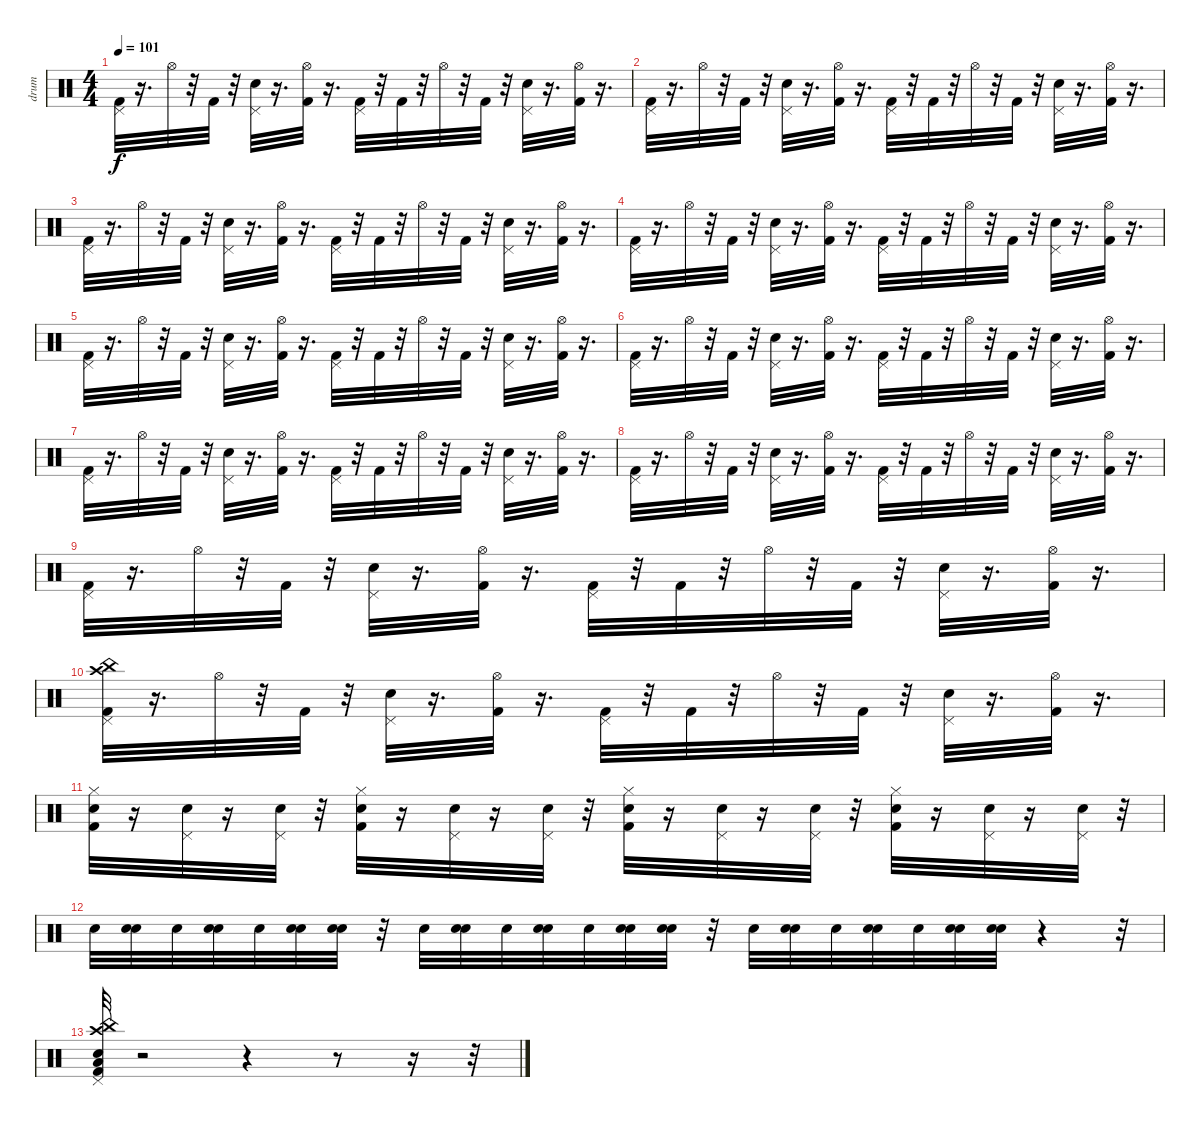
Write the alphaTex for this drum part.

\track ("drum" "drum") {instrument percussion}
\staff {score}
\articulation defaults
\ts (4 4)
\tempo 101
\clef neutral
\ks c
("Kick (hit) 2" "Pedal Hi-Hat (hit)").32{dy f} r.16{d} "Hi-Hat (open)".32 r.32 "Kick (hit) 2".32 r.32 ("Electric Snare (hit)" "Pedal Hi-Hat (hit)").32 r.16{d} ("Kick (hit) 2" "Hi-Hat (open)").32 r.16{d} ("Kick (hit) 2" "Pedal Hi-Hat (hit)").32 r.32 "Kick (hit) 2".32 r.32 "Hi-Hat (open)".32 r.32 "Kick (hit) 2".32 r.32 ("Electric Snare (hit)" "Pedal Hi-Hat (hit)").32 r.16{d} ("Kick (hit) 2" "Hi-Hat (open)").32 r.16{d} |
("Kick (hit) 2" "Pedal Hi-Hat (hit)").32 r.16{d} "Hi-Hat (open)".32 r.32 "Kick (hit) 2".32 r.32 ("Electric Snare (hit)" "Pedal Hi-Hat (hit)").32 r.16{d} ("Kick (hit) 2" "Hi-Hat (open)").32 r.16{d} ("Kick (hit) 2" "Pedal Hi-Hat (hit)").32 r.32 "Kick (hit) 2".32 r.32 "Hi-Hat (open)".32 r.32 "Kick (hit) 2".32 r.32 ("Electric Snare (hit)" "Pedal Hi-Hat (hit)").32 r.16{d} ("Kick (hit) 2" "Hi-Hat (open)").32 r.16{d} |
("Kick (hit) 2" "Pedal Hi-Hat (hit)").32 r.16{d} "Hi-Hat (open)".32 r.32 "Kick (hit) 2".32 r.32 ("Electric Snare (hit)" "Pedal Hi-Hat (hit)").32 r.16{d} ("Kick (hit) 2" "Hi-Hat (open)").32 r.16{d} ("Kick (hit) 2" "Pedal Hi-Hat (hit)").32 r.32 "Kick (hit) 2".32 r.32 "Hi-Hat (open)".32 r.32 "Kick (hit) 2".32 r.32 ("Electric Snare (hit)" "Pedal Hi-Hat (hit)").32 r.16{d} ("Kick (hit) 2" "Hi-Hat (open)").32 r.16{d} |
("Kick (hit) 2" "Pedal Hi-Hat (hit)").32 r.16{d} "Hi-Hat (open)".32 r.32 "Kick (hit) 2".32 r.32 ("Electric Snare (hit)" "Pedal Hi-Hat (hit)").32 r.16{d} ("Kick (hit) 2" "Hi-Hat (open)").32 r.16{d} ("Kick (hit) 2" "Pedal Hi-Hat (hit)").32 r.32 "Kick (hit) 2".32 r.32 "Hi-Hat (open)".32 r.32 "Kick (hit) 2".32 r.32 ("Electric Snare (hit)" "Pedal Hi-Hat (hit)").32 r.16{d} ("Kick (hit) 2" "Hi-Hat (open)").32 r.16{d} |
("Kick (hit) 2" "Pedal Hi-Hat (hit)").32 r.16{d} "Hi-Hat (open)".32 r.32 "Kick (hit) 2".32 r.32 ("Electric Snare (hit)" "Pedal Hi-Hat (hit)").32 r.16{d} ("Kick (hit) 2" "Hi-Hat (open)").32 r.16{d} ("Kick (hit) 2" "Pedal Hi-Hat (hit)").32 r.32 "Kick (hit) 2".32 r.32 "Hi-Hat (open)".32 r.32 "Kick (hit) 2".32 r.32 ("Electric Snare (hit)" "Pedal Hi-Hat (hit)").32 r.16{d} ("Kick (hit) 2" "Hi-Hat (open)").32 r.16{d} |
("Kick (hit) 2" "Pedal Hi-Hat (hit)").32 r.16{d} "Hi-Hat (open)".32 r.32 "Kick (hit) 2".32 r.32 ("Electric Snare (hit)" "Pedal Hi-Hat (hit)").32 r.16{d} ("Kick (hit) 2" "Hi-Hat (open)").32 r.16{d} ("Kick (hit) 2" "Pedal Hi-Hat (hit)").32 r.32 "Kick (hit) 2".32 r.32 "Hi-Hat (open)".32 r.32 "Kick (hit) 2".32 r.32 ("Electric Snare (hit)" "Pedal Hi-Hat (hit)").32 r.16{d} ("Kick (hit) 2" "Hi-Hat (open)").32 r.16{d} |
("Kick (hit) 2" "Pedal Hi-Hat (hit)").32 r.16{d} "Hi-Hat (open)".32 r.32 "Kick (hit) 2".32 r.32 ("Electric Snare (hit)" "Pedal Hi-Hat (hit)").32 r.16{d} ("Kick (hit) 2" "Hi-Hat (open)").32 r.16{d} ("Kick (hit) 2" "Pedal Hi-Hat (hit)").32 r.32 "Kick (hit) 2".32 r.32 "Hi-Hat (open)".32 r.32 "Kick (hit) 2".32 r.32 ("Electric Snare (hit)" "Pedal Hi-Hat (hit)").32 r.16{d} ("Kick (hit) 2" "Hi-Hat (open)").32 r.16{d} |
("Kick (hit) 2" "Pedal Hi-Hat (hit)").32 r.16{d} "Hi-Hat (open)".32 r.32 "Kick (hit) 2".32 r.32 ("Electric Snare (hit)" "Pedal Hi-Hat (hit)").32 r.16{d} ("Kick (hit) 2" "Hi-Hat (open)").32 r.16{d} ("Kick (hit) 2" "Pedal Hi-Hat (hit)").32 r.32 "Kick (hit) 2".32 r.32 "Hi-Hat (open)".32 r.32 "Kick (hit) 2".32 r.32 ("Electric Snare (hit)" "Pedal Hi-Hat (hit)").32 r.16{d} ("Kick (hit) 2" "Hi-Hat (open)").32 r.16{d} |
("Kick (hit) 2" "Pedal Hi-Hat (hit)").32 r.16{d} "Hi-Hat (open)".32 r.32 "Kick (hit) 2".32 r.32 ("Electric Snare (hit)" "Pedal Hi-Hat (hit)").32 r.16{d} ("Kick (hit) 2" "Hi-Hat (open)").32 r.16{d} ("Kick (hit) 2" "Pedal Hi-Hat (hit)").32 r.32 "Kick (hit) 2".32 r.32 "Hi-Hat (open)".32 r.32 "Kick (hit) 2".32 r.32 ("Electric Snare (hit)" "Pedal Hi-Hat (hit)").32 r.16{d} ("Kick (hit) 2" "Hi-Hat (open)").32 r.16{d} |
("Kick (hit) 2" "Pedal Hi-Hat (hit)" "Crash high (hit)" "China (hit)").32 r.16{d} "Hi-Hat (open)".32 r.32 "Kick (hit) 2".32 r.32 ("Electric Snare (hit)" "Pedal Hi-Hat (hit)").32 r.16{d} ("Kick (hit) 2" "Hi-Hat (open)").32 r.16{d} ("Kick (hit) 2" "Pedal Hi-Hat (hit)").32 r.32 "Kick (hit) 2".32 r.32 "Hi-Hat (open)".32 r.32 "Kick (hit) 2".32 r.32 ("Electric Snare (hit)" "Pedal Hi-Hat (hit)").32 r.16{d} ("Kick (hit) 2" "Hi-Hat (open)").32 r.16{d} |
("Kick (hit) 2" "Electric Snare (hit)" "Hi-Hat (closed)").32 r.16 ("Electric Snare (hit)" "Pedal Hi-Hat (hit)").32 r.16 ("Electric Snare (hit)" "Pedal Hi-Hat (hit)").32 r.32 ("Electric Snare (hit)" "Kick (hit) 2" "Hi-Hat (closed)").32 r.16 ("Electric Snare (hit)" "Pedal Hi-Hat (hit)").32 r.16 ("Electric Snare (hit)" "Pedal Hi-Hat (hit)").32 r.32 ("Electric Snare (hit)" "Kick (hit) 2" "Hi-Hat (closed)").32 r.16 ("Electric Snare (hit)" "Pedal Hi-Hat (hit)").32 r.16 ("Electric Snare (hit)" "Pedal Hi-Hat (hit)").32 r.32 ("Electric Snare (hit)" "Kick (hit) 2" "Hi-Hat (closed)").32 r.16 ("Electric Snare (hit)" "Pedal Hi-Hat (hit)").32 r.16 ("Electric Snare (hit)" "Pedal Hi-Hat (hit)").32 r.32 |
"Snare (hit) 2".32 ("Snare (hit) 2" "Snare (hit) 2").32 "Snare (hit) 2".32 ("Snare (hit) 2" "Snare (hit) 2").32 "Snare (hit) 2".32 ("Snare (hit) 2" "Snare (hit) 2").32 ("Snare (hit) 2" "Snare (hit) 2").32 r.32 "Snare (hit) 2".32 ("Snare (hit) 2" "Snare (hit) 2").32 "Snare (hit) 2".32 ("Snare (hit) 2" "Snare (hit) 2").32 "Snare (hit) 2".32 ("Snare (hit) 2" "Snare (hit) 2").32 ("Snare (hit) 2" "Snare (hit) 2").32 r.32 "Snare (hit) 2".32 ("Snare (hit) 2" "Snare (hit) 2").32 "Snare (hit) 2".32 ("Snare (hit) 2" "Snare (hit) 2").32 "Snare (hit) 2".32 ("Snare (hit) 2" "Snare (hit) 2").32 ("Snare (hit) 2" "Snare (hit) 2").32 r.4 r.32 |
("Kick (hit) 2" "Electric Snare (hit)" "Low Floor Tom (hit)" "Pedal Hi-Hat (hit)" "Crash high (hit)" "China (hit)").32 r.2 r.4 r.8 r.16 r.32
